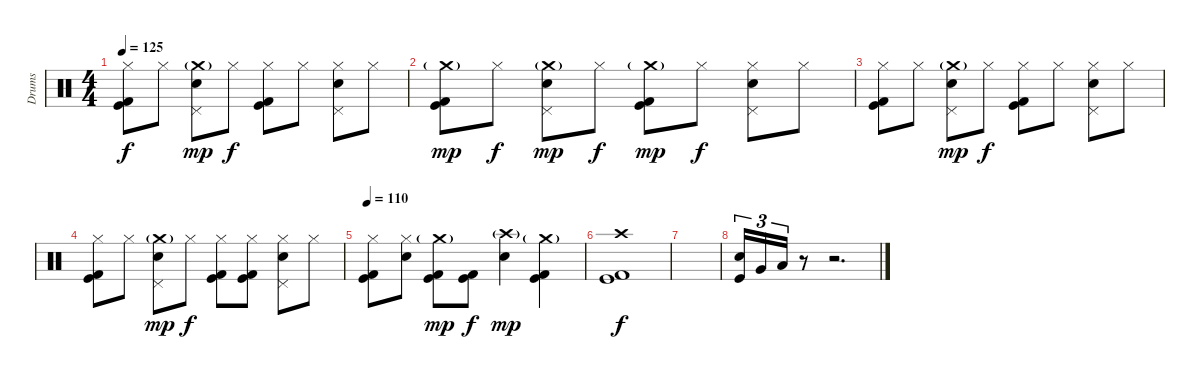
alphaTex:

\track ("Drums" "Drums") {instrument percussion}
\staff {score}
\articulation defaults
\ts (4 4)
\tempo 125
\clef neutral
\ks c
("Hi-Hat (closed)" "Kick (hit)" "Kick (hit) 2").8{dy f} "Hi-Hat (closed)".8 ("Crash medium (hit)"{g} "Pedal Hi-Hat (hit)" "Electric Snare (hit)").8{dy mp} "Hi-Hat (closed)".8{dy f} ("Hi-Hat (closed)" "Kick (hit)" "Kick (hit) 2").8 "Hi-Hat (closed)".8 ("Hi-Hat (closed)" "Pedal Hi-Hat (hit)" "Electric Snare (hit)").8 "Hi-Hat (closed)".8 |
("Crash medium (hit)"{g} "Kick (hit)" "Kick (hit) 2").8{dy mp} "Hi-Hat (closed)".8{dy f} ("Crash medium (hit)"{g} "Pedal Hi-Hat (hit)" "Electric Snare (hit)").8{dy mp} "Hi-Hat (closed)".8{dy f} ("Crash medium (hit)"{g} "Kick (hit)" "Kick (hit) 2").8{dy mp} "Hi-Hat (closed)".8{dy f} ("Hi-Hat (closed)" "Pedal Hi-Hat (hit)" "Electric Snare (hit)").8 "Hi-Hat (closed)".8 |
("Hi-Hat (closed)" "Kick (hit)" "Kick (hit) 2").8 "Hi-Hat (closed)".8 ("Crash medium (hit)"{g} "Pedal Hi-Hat (hit)" "Electric Snare (hit)").8{dy mp} "Hi-Hat (closed)".8{dy f} ("Hi-Hat (closed)" "Kick (hit)" "Kick (hit) 2").8 "Hi-Hat (closed)".8 ("Hi-Hat (closed)" "Pedal Hi-Hat (hit)" "Electric Snare (hit)").8 "Hi-Hat (closed)".8 |
("Hi-Hat (closed)" "Kick (hit)" "Kick (hit) 2").8 "Hi-Hat (closed)".8 ("Crash medium (hit)"{g} "Pedal Hi-Hat (hit)" "Electric Snare (hit)").8{dy mp} "Hi-Hat (closed)".8{dy f} ("Hi-Hat (closed)" "Kick (hit)" "Kick (hit) 2").8 ("Hi-Hat (closed)" "Kick (hit)" "Kick (hit) 2").8 ("Hi-Hat (closed)" "Pedal Hi-Hat (hit)" "Electric Snare (hit)").8 "Hi-Hat (closed)".8 |
\tempo 110
("Hi-Hat (closed)" "Kick (hit)" "Kick (hit) 2").8 ("Hi-Hat (closed)" "Electric Snare (hit)").8 ("Crash medium (hit)"{g} "Kick (hit)" "Kick (hit) 2").8{dy mp} ("Kick (hit)" "Kick (hit) 2").8{dy f} ("Crash high (hit)"{g} "Electric Snare (hit)").4{dy mp} ("Crash medium (hit)"{g} "Kick (hit)" "Kick (hit) 2").4 |
("Crash high (hit)" "Kick (hit)" "Kick (hit) 2").1{dy f} |
|
("Electric Snare (hit)" "Kick (hit)").16{tu (3 2)} "Very Low Tom (hit)".16{tu (3 2)} "Low Tom (hit)".16{tu (3 2)} r.8 r.2{d}
